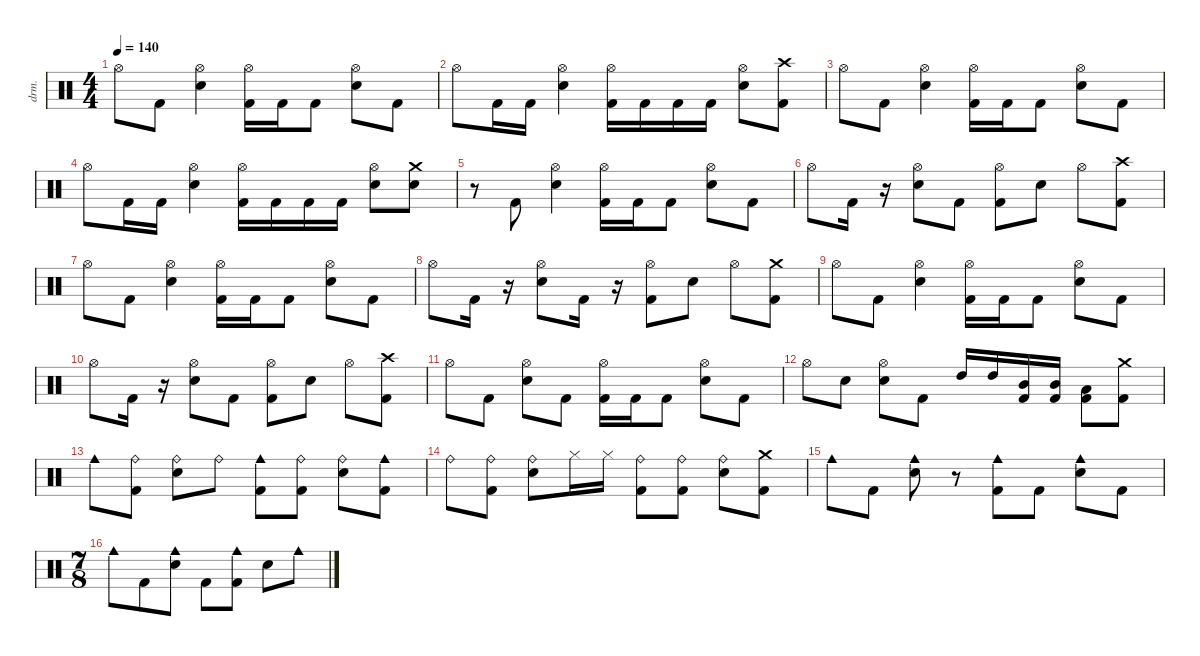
\defaultSystemsLayout 4
\hideDynamics
\bracketExtendMode nobrackets
\otherSystemsTrackNameOrientation horizontal
\track ("Drums" "drm.") {instrument percussion}
\staff {score}
\articulation defaults
\ts (4 4)
\tempo 140
\clef neutral
\ks c "Hi-Hat (open)".8{dy f beam Down} "Kick (hit) 2".8{beam Down}
("Snare (hit) 2" "Hi-Hat (open)").4{beam Down} ("Kick (hit) 2" "Hi-Hat (open)").16{beam Down} "Kick (hit) 2".16{beam Down} "Kick (hit) 2".8{beam Down} ("Hi-Hat (open)" "Snare (hit) 2").8{beam Down} "Kick (hit) 2".8{beam Down} |
"Hi-Hat (open)".8{beam Down} "Kick (hit) 2".16{beam Down} "Kick (hit) 2".16{beam Down} ("Snare (hit) 2" "Hi-Hat (open)").4{beam Down} ("Hi-Hat (open)" "Kick (hit) 2").16{beam Down} "Kick (hit) 2".16{beam Down} "Kick (hit) 2".16{beam Down} "Kick (hit) 2".16{beam Down} ("Hi-Hat (open)" "Snare (hit) 2").8{beam Down} ("Crash high (hit)" "Kick (hit) 2").8{beam Down} |
"Hi-Hat (open)".8{beam Down} "Kick (hit) 2".8{beam Down} ("Snare (hit) 2" "Hi-Hat (open)").4{beam Down} ("Kick (hit) 2" "Hi-Hat (open)").16{beam Down} "Kick (hit) 2".16{beam Down} "Kick (hit) 2".8{beam Down} ("Hi-Hat (open)" "Snare (hit) 2").8{beam Down} "Kick (hit) 2".8{beam Down} |
"Hi-Hat (open)".8{beam Down} "Kick (hit) 2".16{beam Down} "Kick (hit) 2".16{beam Down} ("Snare (hit) 2" "Hi-Hat (open)").4{beam Down} ("Hi-Hat (open)" "Kick (hit) 2").16{beam Down} "Kick (hit) 2".16{beam Down} "Kick (hit) 2".16{beam Down} "Kick (hit) 2".16{beam Down} ("Hi-Hat (open)" "Snare (hit) 2").8{beam Down} ("Snare (hit) 2" "Crash medium (hit)").8{beam Down} |
r.8{beam Down} "Kick (hit) 2".8{beam Up} ("Snare (hit) 2" "Hi-Hat (open)").4{beam Down} ("Kick (hit) 2" "Hi-Hat (open)").16{beam Down} "Kick (hit) 2".16{beam Down} "Kick (hit) 2".8{beam Down} ("Hi-Hat (open)" "Snare (hit) 2").8{beam Down} "Kick (hit) 2".8{beam Down} |
"Hi-Hat (open)".8{beam Down} "Kick (hit) 2".16{beam Down} r.16{beam Down} ("Snare (hit) 2" "Hi-Hat (open)").8{beam Down} "Kick (hit) 2".8{beam Down} ("Hi-Hat (open)" "Kick (hit) 2").8{beam Down} "Snare (hit) 2".8{beam Down} "Hi-Hat (open)".8{beam Down} ("Kick (hit) 2" "Crash high (hit)").8{beam Down} |
"Hi-Hat (open)".8{beam Down} "Kick (hit) 2".8{beam Down} ("Snare (hit) 2" "Hi-Hat (open)").4{beam Down} ("Kick (hit) 2" "Hi-Hat (open)").16{beam Down} "Kick (hit) 2".16{beam Down} "Kick (hit) 2".8{beam Down} ("Hi-Hat (open)" "Snare (hit) 2").8{beam Down} "Kick (hit) 2".8{beam Down} |
"Hi-Hat (open)".8{beam Down} "Kick (hit) 2".16{beam Down} r.16{beam Down} ("Snare (hit) 2" "Hi-Hat (open)").8{beam Down} "Kick (hit) 2".16{beam Down} r.16{beam Down} ("Hi-Hat (open)" "Kick (hit) 2").8{beam Down} "Snare (hit) 2".8{beam Down} "Hi-Hat (open)".8{beam Down} ("Crash medium (hit)" "Kick (hit) 2").8{beam Down} |
"Hi-Hat (open)".8{beam Down} "Kick (hit) 2".8{beam Down} ("Snare (hit) 2" "Hi-Hat (open)").4{beam Down} ("Kick (hit) 2" "Hi-Hat (open)").16{beam Down} "Kick (hit) 2".16{beam Down} "Kick (hit) 2".8{beam Down} ("Hi-Hat (open)" "Snare (hit) 2").8{beam Down} "Kick (hit) 2".8{beam Down} |
"Hi-Hat (open)".8{beam Down} "Kick (hit) 2".16{beam Down} r.16{beam Down} ("Snare (hit) 2" "Hi-Hat (open)").8{beam Down} "Kick (hit) 2".8{beam Down} ("Hi-Hat (open)" "Kick (hit) 2").8{beam Down} "Snare (hit) 2".8{beam Down} "Hi-Hat (open)".8{beam Down} ("Crash high (hit)" "Kick (hit) 2").8{beam Down} |
"Hi-Hat (open)".8{beam Down} "Kick (hit) 2".8{beam Down} ("Snare (hit) 2" "Hi-Hat (open)").8{beam Down} "Kick (hit) 2".8{beam Down} ("Kick (hit) 2" "Hi-Hat (open)").16{beam Down} "Kick (hit) 2".16{beam Down} "Kick (hit) 2".8{beam Down} ("Hi-Hat (open)" "Snare (hit) 2").8{beam Down} "Kick (hit) 2".8{beam Down} |
"Hi-Hat (open)".8{beam Down} "Snare (hit) 2".8{beam Down} ("Snare (hit) 2" "Hi-Hat (open)").8{beam Down} "Kick (hit) 2".8{beam Down} "High Tom (hit)".16{beam Up} "High Tom (hit)".16{beam Up} ("Mid Tom (hit)" "Kick (hit) 2").16{beam Up} ("Mid Tom (hit)" "Kick (hit) 2").16{beam Up} ("Low Tom (hit)" "Kick (hit) 2").8{beam Down} ("Crash medium (hit)" "Kick (hit) 2").8{beam Down} |
"Cowbell medium (hit)".8{beam Down} ("Kick (hit) 2" "Ride (bell)").8{beam Down} ("Snare (hit) 2" "Ride (bell)").8{beam Down} "Ride (bell)".8{beam Down} ("Kick (hit) 2" "Cowbell medium (hit)").8{beam Down} ("Kick (hit) 2" "Ride (bell)").8{beam Down} ("Snare (hit) 2" "Ride (bell)").8{beam Down} ("Kick (hit) 2" "Cowbell medium (hit)").8{beam Down} |
"Ride (bell)".8{beam Down} ("Kick (hit) 2" "Ride (bell)").8{beam Down} ("Snare (hit) 2" "Ride (bell)").8{beam Down} "Hi-Hat (closed)".16{dy mf beam Down} "Hi-Hat (closed)".16{beam Down} ("Kick (hit) 2" "Ride (bell)").8{dy f beam Down} ("Kick (hit) 2" "Ride (bell)").8{beam Down} ("Snare (hit) 2" "Ride (bell)").8{beam Down} ("Kick (hit) 2" "Crash medium (hit)").8{beam Down} |
"Cowbell medium (hit)".8{beam Down} "Kick (hit) 2".8{beam Down} ("Snare (hit) 2" "Cowbell medium (hit)").8{beam Down} r.8{beam Down} ("Kick (hit) 2" "Cowbell medium (hit)").8{beam Down} "Kick (hit) 2".8{beam Down} ("Snare (hit) 2" "Cowbell medium (hit)").8{beam Down} "Kick (hit) 2".8{beam Down} |
\ts (7 8)
\beaming (8 3 2 2)
"Cowbell medium (hit)".8{beam Down} "Kick (hit) 2".8{beam Down} ("Snare (hit) 2" "Cowbell medium (hit)").8{beam Down} "Kick (hit) 2".8{beam Down} ("Kick (hit) 2" "Cowbell medium (hit)").8{beam Down} "Snare (hit) 2".8{beam Down} "Cowbell medium (hit)".8{beam Down}
